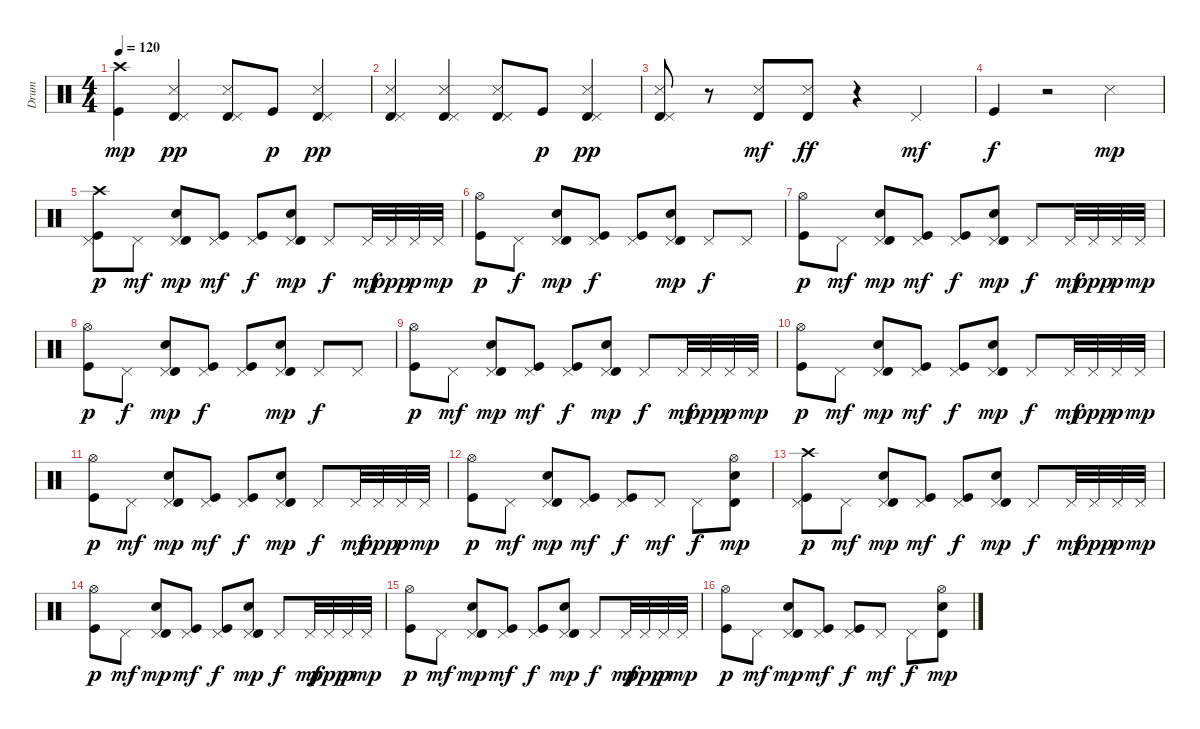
\track ("Drum" "Drum") {instrument percussion}
\staff {score}
\articulation defaults
\ts (4 4)
\tempo 120
\clef neutral
\ks c
("Crash high (hit)" "Kick (hit)").4{dy mp} ("Timbale high (hit)" "Snare (side stick) 3" "Pedal Hi-Hat (hit)").4{dy pp} ("Timbale high (hit)" "Snare (side stick) 3" "Pedal Hi-Hat (hit)").8 "Kick (hit)".8{dy p} ("Timbale high (hit)" "Snare (side stick) 3" "Pedal Hi-Hat (hit)").4{dy pp} |
("Timbale high (hit)" "Snare (side stick) 3" "Pedal Hi-Hat (hit)").4 ("Timbale high (hit)" "Snare (side stick) 3" "Pedal Hi-Hat (hit)").4 ("Timbale high (hit)" "Snare (side stick) 3" "Pedal Hi-Hat (hit)").8 "Kick (hit)".8{dy p} ("Timbale high (hit)" "Snare (side stick) 3" "Pedal Hi-Hat (hit)").4{dy pp} |
("Timbale high (hit)" "Snare (side stick) 3" "Pedal Hi-Hat (hit)").8 r.8 ("Timbale high (hit)" "Snare (side stick) 3").8{dy mf} ("Timbale high (hit)" "Snare (side stick) 3").8{dy ff} r.4 "Pedal Hi-Hat (hit)".4{dy mf} |
"Kick (hit)".4{dy f} r.2 "Snare (side stick) 3".4{dy mp} |
("Pedal Hi-Hat (hit)" "Crash high (hit)" "Kick (hit)").8{dy p} "Pedal Hi-Hat (hit)".8{dy mf} ("Pedal Hi-Hat (hit)" "Electric Snare (hit)" "Timbale high (hit)").8{dy mp} ("Pedal Hi-Hat (hit)" "Kick (hit)").8{dy mf} ("Pedal Hi-Hat (hit)" "Kick (hit)").8{dy f} ("Pedal Hi-Hat (hit)" "Electric Snare (hit)" "Timbale high (hit)").8{dy mp} "Pedal Hi-Hat (hit)".8{dy f} "Pedal Hi-Hat (hit)".32{dy mf} "Pedal Hi-Hat (hit)".32{dy ppp} "Pedal Hi-Hat (hit)".32{dy p} "Pedal Hi-Hat (hit)".32{dy mp} |
("Hi-Hat (open)" "Kick (hit)").8{dy p} "Pedal Hi-Hat (hit)".8{dy f} ("Pedal Hi-Hat (hit)" "Electric Snare (hit)" "Timbale high (hit)").8{dy mp} ("Pedal Hi-Hat (hit)" "Kick (hit)").8{dy f} ("Pedal Hi-Hat (hit)" "Kick (hit)").8 ("Pedal Hi-Hat (hit)" "Electric Snare (hit)" "Timbale high (hit)").8{dy mp} "Pedal Hi-Hat (hit)".8{dy f} "Pedal Hi-Hat (hit)".8 |
("Hi-Hat (open)" "Kick (hit)").8{dy p} "Pedal Hi-Hat (hit)".8{dy mf} ("Pedal Hi-Hat (hit)" "Electric Snare (hit)" "Timbale high (hit)").8{dy mp} ("Pedal Hi-Hat (hit)" "Kick (hit)").8{dy mf} ("Pedal Hi-Hat (hit)" "Kick (hit)").8{dy f} ("Pedal Hi-Hat (hit)" "Electric Snare (hit)" "Timbale high (hit)").8{dy mp} "Pedal Hi-Hat (hit)".8{dy f} "Pedal Hi-Hat (hit)".32{dy mf} "Pedal Hi-Hat (hit)".32{dy ppp} "Pedal Hi-Hat (hit)".32{dy p} "Pedal Hi-Hat (hit)".32{dy mp} |
("Hi-Hat (open)" "Kick (hit)").8{dy p} "Pedal Hi-Hat (hit)".8{dy f} ("Pedal Hi-Hat (hit)" "Electric Snare (hit)" "Timbale high (hit)").8{dy mp} ("Pedal Hi-Hat (hit)" "Kick (hit)").8{dy f} ("Pedal Hi-Hat (hit)" "Kick (hit)").8 ("Pedal Hi-Hat (hit)" "Electric Snare (hit)" "Timbale high (hit)").8{dy mp} "Pedal Hi-Hat (hit)".8{dy f} "Pedal Hi-Hat (hit)".8 |
("Hi-Hat (open)" "Kick (hit)").8{dy p} "Pedal Hi-Hat (hit)".8{dy mf} ("Pedal Hi-Hat (hit)" "Electric Snare (hit)" "Timbale high (hit)").8{dy mp} ("Pedal Hi-Hat (hit)" "Kick (hit)").8{dy mf} ("Pedal Hi-Hat (hit)" "Kick (hit)").8{dy f} ("Pedal Hi-Hat (hit)" "Electric Snare (hit)" "Timbale high (hit)").8{dy mp} "Pedal Hi-Hat (hit)".8{dy f} "Pedal Hi-Hat (hit)".32{dy mf} "Pedal Hi-Hat (hit)".32{dy ppp} "Pedal Hi-Hat (hit)".32{dy p} "Pedal Hi-Hat (hit)".32{dy mp} |
("Hi-Hat (open)" "Kick (hit)").8{dy p} "Pedal Hi-Hat (hit)".8{dy mf} ("Pedal Hi-Hat (hit)" "Electric Snare (hit)" "Timbale high (hit)").8{dy mp} ("Pedal Hi-Hat (hit)" "Kick (hit)").8{dy mf} ("Pedal Hi-Hat (hit)" "Kick (hit)").8{dy f} ("Pedal Hi-Hat (hit)" "Electric Snare (hit)" "Timbale high (hit)").8{dy mp} "Pedal Hi-Hat (hit)".8{dy f} "Pedal Hi-Hat (hit)".32{dy mf} "Pedal Hi-Hat (hit)".32{dy ppp} "Pedal Hi-Hat (hit)".32{dy p} "Pedal Hi-Hat (hit)".32{dy mp} |
("Hi-Hat (open)" "Kick (hit)").8{dy p} "Pedal Hi-Hat (hit)".8{dy mf} ("Pedal Hi-Hat (hit)" "Electric Snare (hit)" "Timbale high (hit)").8{dy mp} ("Pedal Hi-Hat (hit)" "Kick (hit)").8{dy mf} ("Pedal Hi-Hat (hit)" "Kick (hit)").8{dy f} ("Pedal Hi-Hat (hit)" "Electric Snare (hit)" "Timbale high (hit)").8{dy mp} "Pedal Hi-Hat (hit)".8{dy f} "Pedal Hi-Hat (hit)".32{dy mf} "Pedal Hi-Hat (hit)".32{dy ppp} "Pedal Hi-Hat (hit)".32{dy p} "Pedal Hi-Hat (hit)".32{dy mp} |
("Hi-Hat (open)" "Kick (hit)").8{dy p} "Pedal Hi-Hat (hit)".8{dy mf} ("Pedal Hi-Hat (hit)" "Electric Snare (hit)" "Timbale high (hit)").8{dy mp} ("Pedal Hi-Hat (hit)" "Kick (hit)").8{dy mf} ("Pedal Hi-Hat (hit)" "Kick (hit)").8{dy f} "Pedal Hi-Hat (hit)".8{dy mf} "Pedal Hi-Hat (hit)".8{dy f} ("Hi-Hat (open)" "Electric Snare (hit)" "Timbale high (hit)").8{dy mp} |
("Pedal Hi-Hat (hit)" "Crash high (hit)" "Kick (hit)").8{dy p} "Pedal Hi-Hat (hit)".8{dy mf} ("Pedal Hi-Hat (hit)" "Electric Snare (hit)" "Timbale high (hit)").8{dy mp} ("Pedal Hi-Hat (hit)" "Kick (hit)").8{dy mf} ("Pedal Hi-Hat (hit)" "Kick (hit)").8{dy f} ("Pedal Hi-Hat (hit)" "Electric Snare (hit)" "Timbale high (hit)").8{dy mp} "Pedal Hi-Hat (hit)".8{dy f} "Pedal Hi-Hat (hit)".32{dy mf} "Pedal Hi-Hat (hit)".32{dy ppp} "Pedal Hi-Hat (hit)".32{dy p} "Pedal Hi-Hat (hit)".32{dy mp} |
("Hi-Hat (open)" "Kick (hit)").8{dy p} "Pedal Hi-Hat (hit)".8{dy mf} ("Pedal Hi-Hat (hit)" "Electric Snare (hit)" "Timbale high (hit)").8{dy mp} ("Pedal Hi-Hat (hit)" "Kick (hit)").8{dy mf} ("Pedal Hi-Hat (hit)" "Kick (hit)").8{dy f} ("Pedal Hi-Hat (hit)" "Electric Snare (hit)" "Timbale high (hit)").8{dy mp} "Pedal Hi-Hat (hit)".8{dy f} "Pedal Hi-Hat (hit)".32{dy mf} "Pedal Hi-Hat (hit)".32{dy ppp} "Pedal Hi-Hat (hit)".32{dy p} "Pedal Hi-Hat (hit)".32{dy mp} |
("Hi-Hat (open)" "Kick (hit)").8{dy p} "Pedal Hi-Hat (hit)".8{dy mf} ("Pedal Hi-Hat (hit)" "Electric Snare (hit)" "Timbale high (hit)").8{dy mp} ("Pedal Hi-Hat (hit)" "Kick (hit)").8{dy mf} ("Pedal Hi-Hat (hit)" "Kick (hit)").8{dy f} ("Pedal Hi-Hat (hit)" "Electric Snare (hit)" "Timbale high (hit)").8{dy mp} "Pedal Hi-Hat (hit)".8{dy f} "Pedal Hi-Hat (hit)".32{dy mf} "Pedal Hi-Hat (hit)".32{dy ppp} "Pedal Hi-Hat (hit)".32{dy p} "Pedal Hi-Hat (hit)".32{dy mp} |
("Hi-Hat (open)" "Kick (hit)").8{dy p} "Pedal Hi-Hat (hit)".8{dy mf} ("Pedal Hi-Hat (hit)" "Electric Snare (hit)" "Timbale high (hit)").8{dy mp} ("Pedal Hi-Hat (hit)" "Kick (hit)").8{dy mf} ("Pedal Hi-Hat (hit)" "Kick (hit)").8{dy f} "Pedal Hi-Hat (hit)".8{dy mf} "Pedal Hi-Hat (hit)".8{dy f} ("Hi-Hat (open)" "Electric Snare (hit)" "Timbale high (hit)").8{dy mp}
